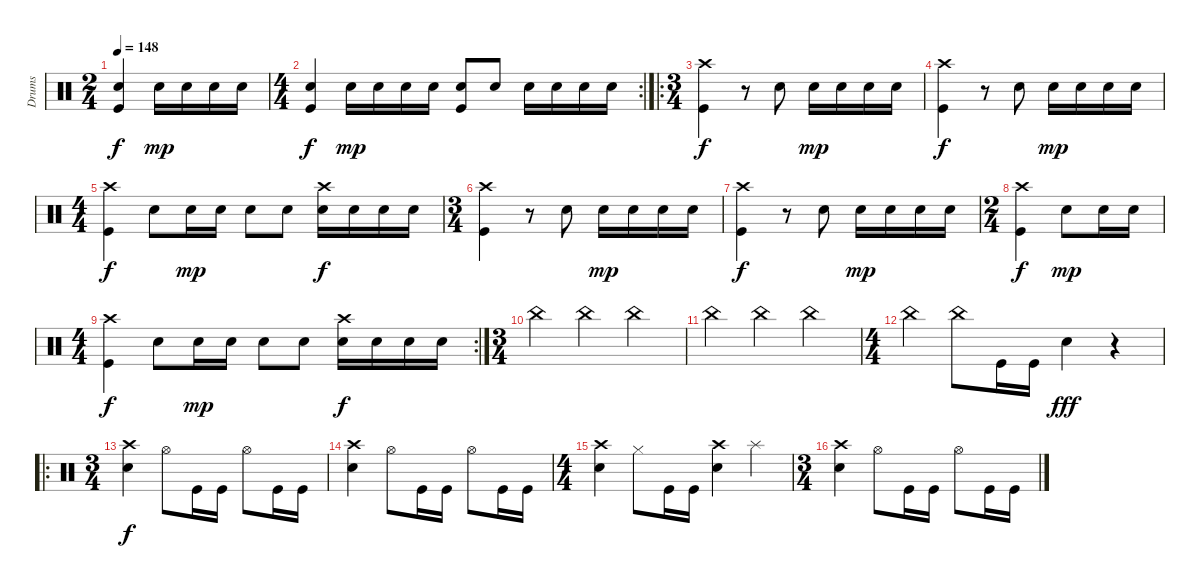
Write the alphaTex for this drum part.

\track ("Drums" "Drums") {instrument percussion}
\staff {score}
\articulation defaults
\ts (2 4)
\tempo 148
\clef neutral
\ks c
("Snare (hit) 2" "Kick (hit)").4{dy f} "Snare (hit) 2".16{dy mp} "Snare (hit) 2".16 "Snare (hit) 2".16 "Snare (hit) 2".16 |
\rc 2
\ts (4 4)
("Snare (hit) 2" "Kick (hit)").4{dy f} "Snare (hit) 2".16{dy mp} "Snare (hit) 2".16 "Snare (hit) 2".16 "Snare (hit) 2".16 ("Kick (hit)" "Snare (hit) 2").8 "Snare (hit) 2".8 "Snare (hit) 2".16 "Snare (hit) 2".16 "Snare (hit) 2".16 "Snare (hit) 2".16 |
\ro
\ts (3 4)
("Crash high (hit)" "Kick (hit)").4{dy f} r.8 "Snare (hit) 2".8 "Snare (hit) 2".16{dy mp} "Snare (hit) 2".16 "Snare (hit) 2".16 "Snare (hit) 2".16 |
("Crash high (hit)" "Kick (hit)").4{dy f} r.8 "Snare (hit) 2".8 "Snare (hit) 2".16{dy mp} "Snare (hit) 2".16 "Snare (hit) 2".16 "Snare (hit) 2".16 |
\ts (4 4)
("Crash high (hit)" "Kick (hit)").4{dy f} "Snare (hit) 2".8 "Snare (hit) 2".16{dy mp} "Snare (hit) 2".16 "Snare (hit) 2".8 "Snare (hit) 2".8 ("Crash high (hit)" "Snare (hit) 2").16{dy f} "Snare (hit) 2".16 "Snare (hit) 2".16 "Snare (hit) 2".16 |
\ts (3 4)
("Crash high (hit)" "Kick (hit)").4 r.8 "Snare (hit) 2".8 "Snare (hit) 2".16{dy mp} "Snare (hit) 2".16 "Snare (hit) 2".16 "Snare (hit) 2".16 |
("Crash high (hit)" "Kick (hit)").4{dy f} r.8 "Snare (hit) 2".8 "Snare (hit) 2".16{dy mp} "Snare (hit) 2".16 "Snare (hit) 2".16 "Snare (hit) 2".16 |
\ts (2 4)
("Crash high (hit)" "Kick (hit)").4{dy f} "Snare (hit) 2".8{dy mp} "Snare (hit) 2".16 "Snare (hit) 2".16 |
\rc 2
\ts (4 4)
("Crash high (hit)" "Kick (hit)").4{dy f} "Snare (hit) 2".8 "Snare (hit) 2".16{dy mp} "Snare (hit) 2".16 "Snare (hit) 2".8 "Snare (hit) 2".8 ("Crash high (hit)" "Snare (hit) 2").16{dy f} "Snare (hit) 2".16 "Snare (hit) 2".16 "Snare (hit) 2".16 |
\ts (3 4)
"China (hit)".4 "China (hit)".4 "China (hit)".4 |
"China (hit)".4 "China (hit)".4 "China (hit)".4 |
\ts (4 4)
"China (hit)".4 "China (hit)".8 "Kick (hit)".16 "Kick (hit)".16 "Snare (hit) 2".4{dy fff} r.4 |
\ro
\ts (3 4)
("Crash high (hit)" "Snare (hit) 2").4{dy f} "Hi-Hat (open)".8 "Kick (hit)".16 "Kick (hit)".16 "Hi-Hat (open)".8 "Kick (hit)".16 "Kick (hit)".16 |
("Crash high (hit)" "Snare (hit) 2").4 "Hi-Hat (open)".8 "Kick (hit)".16 "Kick (hit)".16 "Hi-Hat (open)".8 "Kick (hit)".16 "Kick (hit)".16 |
\ts (4 4)
("Crash high (hit)" "Snare (hit) 2").4 "Hi-Hat (closed)".8 "Kick (hit)".16 "Kick (hit)".16 ("Crash high (hit)" "Snare (hit) 2").4 "Splash (hit)".4 |
\ts (3 4)
("Crash high (hit)" "Snare (hit) 2").4 "Hi-Hat (open)".8 "Kick (hit)".16 "Kick (hit)".16 "Hi-Hat (open)".8 "Kick (hit)".16 "Kick (hit)".16
